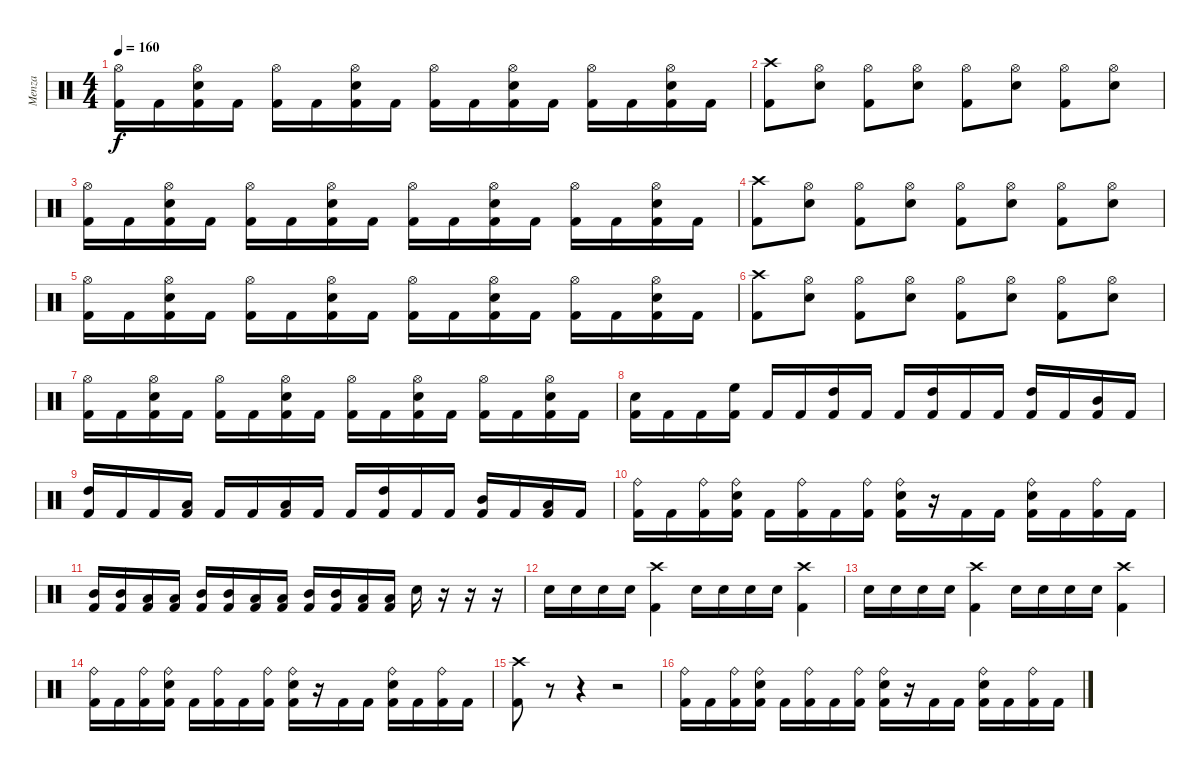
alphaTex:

\track ("Menza" "Menza") {instrument percussion}
\staff {score}
\articulation defaults
\ts (4 4)
\tempo 160
\clef neutral
\ks c
("Hi-Hat (open)" "Kick (hit) 2").16{dy f} "Kick (hit) 2".16 ("Hi-Hat (open)" "Snare (hit) 2" "Kick (hit) 2").16 "Kick (hit) 2".16 ("Hi-Hat (open)" "Kick (hit) 2").16 "Kick (hit) 2".16 ("Hi-Hat (open)" "Snare (hit) 2" "Kick (hit) 2").16 "Kick (hit) 2".16 ("Hi-Hat (open)" "Kick (hit) 2").16 "Kick (hit) 2".16 ("Hi-Hat (open)" "Snare (hit) 2" "Kick (hit) 2").16 "Kick (hit) 2".16 ("Hi-Hat (open)" "Kick (hit) 2").16 "Kick (hit) 2".16 ("Hi-Hat (open)" "Snare (hit) 2" "Kick (hit) 2").16 "Kick (hit) 2".16 |
("Crash high (hit)" "Kick (hit) 2").8 ("Hi-Hat (open)" "Snare (hit) 2").8 ("Hi-Hat (open)" "Kick (hit) 2").8 ("Hi-Hat (open)" "Snare (hit) 2").8 ("Hi-Hat (open)" "Kick (hit) 2").8 ("Hi-Hat (open)" "Snare (hit) 2").8 ("Hi-Hat (open)" "Kick (hit) 2").8 ("Hi-Hat (open)" "Snare (hit) 2").8 |
("Hi-Hat (open)" "Kick (hit) 2").16 "Kick (hit) 2".16 ("Hi-Hat (open)" "Snare (hit) 2" "Kick (hit) 2").16 "Kick (hit) 2".16 ("Hi-Hat (open)" "Kick (hit) 2").16 "Kick (hit) 2".16 ("Hi-Hat (open)" "Snare (hit) 2" "Kick (hit) 2").16 "Kick (hit) 2".16 ("Hi-Hat (open)" "Kick (hit) 2").16 "Kick (hit) 2".16 ("Hi-Hat (open)" "Snare (hit) 2" "Kick (hit) 2").16 "Kick (hit) 2".16 ("Hi-Hat (open)" "Kick (hit) 2").16 "Kick (hit) 2".16 ("Hi-Hat (open)" "Snare (hit) 2" "Kick (hit) 2").16 "Kick (hit) 2".16 |
("Crash high (hit)" "Kick (hit) 2").8 ("Hi-Hat (open)" "Snare (hit) 2").8 ("Hi-Hat (open)" "Kick (hit) 2").8 ("Hi-Hat (open)" "Snare (hit) 2").8 ("Hi-Hat (open)" "Kick (hit) 2").8 ("Hi-Hat (open)" "Snare (hit) 2").8 ("Hi-Hat (open)" "Kick (hit) 2").8 ("Hi-Hat (open)" "Snare (hit) 2").8 |
("Hi-Hat (open)" "Kick (hit) 2").16 "Kick (hit) 2".16 ("Hi-Hat (open)" "Snare (hit) 2" "Kick (hit) 2").16 "Kick (hit) 2".16 ("Hi-Hat (open)" "Kick (hit) 2").16 "Kick (hit) 2".16 ("Hi-Hat (open)" "Snare (hit) 2" "Kick (hit) 2").16 "Kick (hit) 2".16 ("Hi-Hat (open)" "Kick (hit) 2").16 "Kick (hit) 2".16 ("Hi-Hat (open)" "Snare (hit) 2" "Kick (hit) 2").16 "Kick (hit) 2".16 ("Hi-Hat (open)" "Kick (hit) 2").16 "Kick (hit) 2".16 ("Hi-Hat (open)" "Snare (hit) 2" "Kick (hit) 2").16 "Kick (hit) 2".16 |
("Crash high (hit)" "Kick (hit) 2").8 ("Hi-Hat (open)" "Snare (hit) 2").8 ("Hi-Hat (open)" "Kick (hit) 2").8 ("Hi-Hat (open)" "Snare (hit) 2").8 ("Hi-Hat (open)" "Kick (hit) 2").8 ("Hi-Hat (open)" "Snare (hit) 2").8 ("Hi-Hat (open)" "Kick (hit) 2").8 ("Hi-Hat (open)" "Snare (hit) 2").8 |
("Hi-Hat (open)" "Kick (hit) 2").16 "Kick (hit) 2".16 ("Hi-Hat (open)" "Snare (hit) 2" "Kick (hit) 2").16 "Kick (hit) 2".16 ("Hi-Hat (open)" "Kick (hit) 2").16 "Kick (hit) 2".16 ("Hi-Hat (open)" "Snare (hit) 2" "Kick (hit) 2").16 "Kick (hit) 2".16 ("Hi-Hat (open)" "Kick (hit) 2").16 "Kick (hit) 2".16 ("Hi-Hat (open)" "Snare (hit) 2" "Kick (hit) 2").16 "Kick (hit) 2".16 ("Hi-Hat (open)" "Kick (hit) 2").16 "Kick (hit) 2".16 ("Hi-Hat (open)" "Snare (hit) 2" "Kick (hit) 2").16 "Kick (hit) 2".16 |
("Snare (hit) 2" "Kick (hit) 2").16 "Kick (hit) 2".16 "Kick (hit) 2".16 ("High Floor Tom (hit)" "Kick (hit) 2").16 "Kick (hit) 2".16 "Kick (hit) 2".16 ("High Tom (hit)" "Kick (hit) 2").16 "Kick (hit) 2".16 "Kick (hit) 2".16 ("High Tom (hit)" "Kick (hit) 2").16 "Kick (hit) 2".16 "Kick (hit) 2".16 ("High Tom (hit)" "Kick (hit) 2").16 "Kick (hit) 2".16 ("Mid Tom (hit)" "Kick (hit) 2").16 "Kick (hit) 2".16 |
("High Tom (hit)" "Kick (hit) 2").16 "Kick (hit) 2".16 "Kick (hit) 2".16 ("Low Tom (hit)" "Kick (hit) 2").16 "Kick (hit) 2".16 "Kick (hit) 2".16 ("Low Tom (hit)" "Kick (hit) 2").16 "Kick (hit) 2".16 "Kick (hit) 2".16 ("High Tom (hit)" "Kick (hit) 2").16 "Kick (hit) 2".16 "Kick (hit) 2".16 ("Mid Tom (hit)" "Kick (hit) 2").16 "Kick (hit) 2".16 ("Low Tom (hit)" "Kick (hit) 2").16 "Kick (hit) 2".16 |
("Ride (bell)" "Kick (hit) 2").16 "Kick (hit) 2".16 ("Ride (bell)" "Kick (hit) 2").16 ("Ride (bell)" "Snare (hit) 2" "Kick (hit) 2").16 "Kick (hit) 2".16 ("Ride (bell)" "Kick (hit) 2").16 "Kick (hit) 2".16 ("Ride (bell)" "Kick (hit) 2").16 ("Ride (bell)" "Snare (hit) 2" "Kick (hit) 2").16 r.16 "Kick (hit) 2".16 "Kick (hit) 2".16 ("Ride (bell)" "Snare (hit) 2" "Kick (hit) 2").16 "Kick (hit) 2".16 ("Ride (bell)" "Kick (hit) 2").16 "Kick (hit) 2".16 |
("Mid Tom (hit)" "Kick (hit) 2").16 ("Mid Tom (hit)" "Kick (hit) 2").16 ("Low Tom (hit)" "Kick (hit) 2").16 ("Low Tom (hit)" "Kick (hit) 2").16 ("Mid Tom (hit)" "Kick (hit) 2").16 ("Mid Tom (hit)" "Kick (hit) 2").16 ("Low Tom (hit)" "Kick (hit) 2").16 ("Low Tom (hit)" "Kick (hit) 2").16 ("Mid Tom (hit)" "Kick (hit) 2").16 ("Mid Tom (hit)" "Kick (hit) 2").16 ("Low Tom (hit)" "Kick (hit) 2").16 ("Low Tom (hit)" "Kick (hit) 2").16 "Snare (hit) 2".16 r.16 r.16 r.16 |
"Snare (hit) 2".16 "Snare (hit) 2".16 "Snare (hit) 2".16 "Snare (hit) 2".16 ("Crash high (hit)" "Kick (hit) 2").4 "Snare (hit) 2".16 "Snare (hit) 2".16 "Snare (hit) 2".16 "Snare (hit) 2".16 ("Crash high (hit)" "Kick (hit) 2").4 |
"Snare (hit) 2".16 "Snare (hit) 2".16 "Snare (hit) 2".16 "Snare (hit) 2".16 ("Crash high (hit)" "Kick (hit) 2").4 "Snare (hit) 2".16 "Snare (hit) 2".16 "Snare (hit) 2".16 "Snare (hit) 2".16 ("Crash high (hit)" "Kick (hit) 2").4 |
("Ride (bell)" "Kick (hit) 2").16 "Kick (hit) 2".16 ("Ride (bell)" "Kick (hit) 2").16 ("Ride (bell)" "Snare (hit) 2" "Kick (hit) 2").16 "Kick (hit) 2".16 ("Ride (bell)" "Kick (hit) 2").16 "Kick (hit) 2".16 ("Ride (bell)" "Kick (hit) 2").16 ("Ride (bell)" "Snare (hit) 2" "Kick (hit) 2").16 r.16 "Kick (hit) 2".16 "Kick (hit) 2".16 ("Ride (bell)" "Snare (hit) 2" "Kick (hit) 2").16 "Kick (hit) 2".16 ("Ride (bell)" "Kick (hit) 2").16 "Kick (hit) 2".16 |
("Crash high (hit)" "Kick (hit) 2").8 r.8 r.4 r.2 |
("Ride (bell)" "Kick (hit) 2").16 "Kick (hit) 2".16 ("Ride (bell)" "Kick (hit) 2").16 ("Ride (bell)" "Snare (hit) 2" "Kick (hit) 2").16 "Kick (hit) 2".16 ("Ride (bell)" "Kick (hit) 2").16 "Kick (hit) 2".16 ("Ride (bell)" "Kick (hit) 2").16 ("Ride (bell)" "Snare (hit) 2" "Kick (hit) 2").16 r.16 "Kick (hit) 2".16 "Kick (hit) 2".16 ("Ride (bell)" "Snare (hit) 2" "Kick (hit) 2").16 "Kick (hit) 2".16 ("Ride (bell)" "Kick (hit) 2").16 "Kick (hit) 2".16
